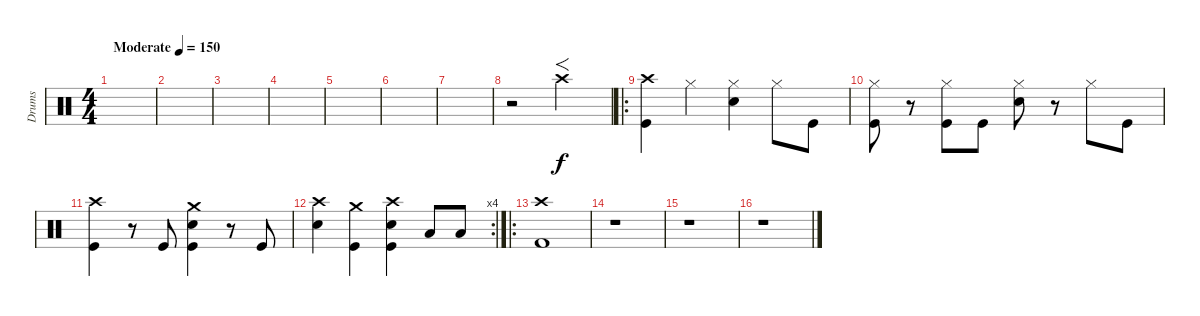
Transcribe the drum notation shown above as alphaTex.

\track ("Drums" "Drums") {instrument percussion}
\staff {score}
\articulation defaults
\ts (4 4)
\tempo (150 "Moderate")
\clef neutral
\ks c
|
|
|
|
|
|
|
r.2 "Crash high (hit)".2{f} |
\ro
("Crash high (hit)" "Kick (hit)").4 "Hi-Hat (closed)".4 ("Hi-Hat (closed)" "Snare (hit) 2").4 "Hi-Hat (closed)".8 "Kick (hit)".8 |
("Hi-Hat (closed)" "Kick (hit)").8 r.8 ("Hi-Hat (closed)" "Kick (hit)").8 "Kick (hit)".8 ("Hi-Hat (closed)" "Snare (hit) 2").8 r.8 "Hi-Hat (closed)".8 "Kick (hit)".8 |
("Crash high (hit)" "Kick (hit)").4 r.8 "Kick (hit)".8 ("Crash medium (hit)" "Snare (hit) 2" "Kick (hit)").4 r.8 "Kick (hit)".8 |
\rc 4
("Crash high (hit)" "Snare (hit) 2").4 ("Crash medium (hit)" "Kick (hit)").4 ("Crash high (hit)" "Snare (hit) 2" "Kick (hit)").4 "Low Tom (hit)".8 "Low Tom (hit)".8 |
\ro
("Crash high (hit)" "Kick (hit) 2").1 |
r.1 |
r.1 |
r.1
